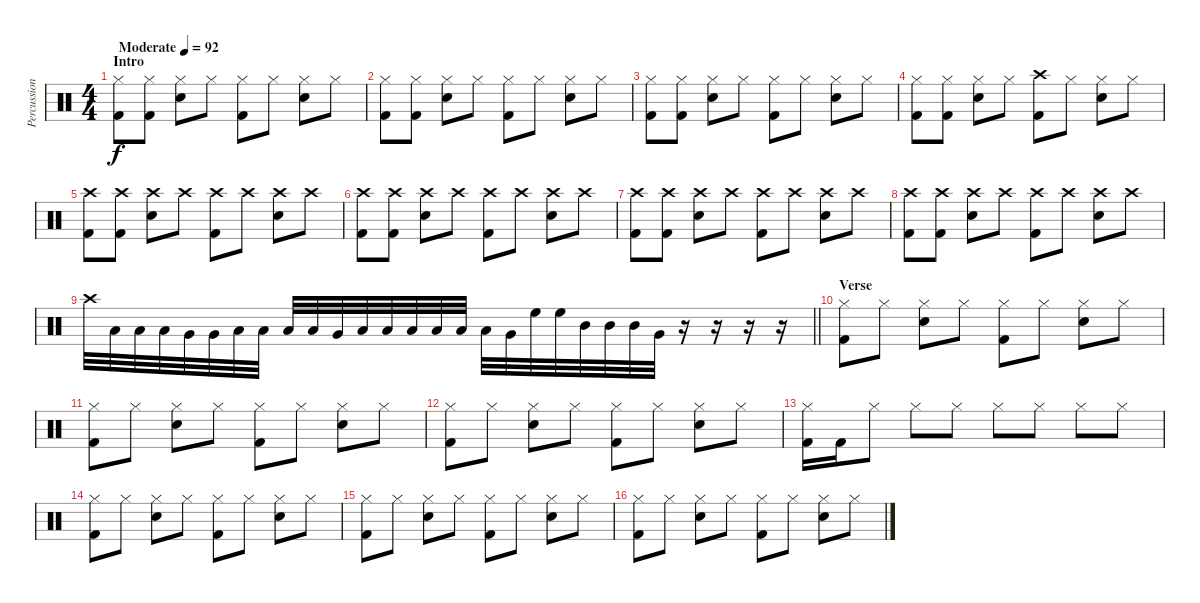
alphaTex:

\track ("Percussion" "Percussion") {instrument percussion}
\staff {score}
\articulation defaults
\ts (4 4)
\section ("" "Intro")
\tempo (92 "Moderate")
\clef neutral
\ks c
("Kick (hit) 2" "Hi-Hat (closed)").8{dy f} ("Kick (hit) 2" "Hi-Hat (closed)").8 ("Snare (hit) 2" "Hi-Hat (closed)").8 "Hi-Hat (closed)".8 ("Kick (hit) 2" "Hi-Hat (closed)").8 "Hi-Hat (closed)".8 ("Snare (hit) 2" "Hi-Hat (closed)").8 "Hi-Hat (closed)".8 |
("Kick (hit) 2" "Hi-Hat (closed)").8 ("Kick (hit) 2" "Hi-Hat (closed)").8 ("Snare (hit) 2" "Hi-Hat (closed)").8 "Hi-Hat (closed)".8 ("Kick (hit) 2" "Hi-Hat (closed)").8 "Hi-Hat (closed)".8 ("Snare (hit) 2" "Hi-Hat (closed)").8 "Hi-Hat (closed)".8 |
("Kick (hit) 2" "Hi-Hat (closed)").8 ("Kick (hit) 2" "Hi-Hat (closed)").8 ("Snare (hit) 2" "Hi-Hat (closed)").8 "Hi-Hat (closed)".8 ("Kick (hit) 2" "Hi-Hat (closed)").8 "Hi-Hat (closed)".8 ("Snare (hit) 2" "Hi-Hat (closed)").8 "Hi-Hat (closed)".8 |
("Kick (hit) 2" "Hi-Hat (closed)").8 ("Kick (hit) 2" "Hi-Hat (closed)").8 ("Snare (hit) 2" "Hi-Hat (closed)").8 "Hi-Hat (closed)".8 ("Kick (hit) 2" "Crash high (hit)").8 "Hi-Hat (closed)".8 ("Snare (hit) 2" "Hi-Hat (closed)").8 "Hi-Hat (closed)".8 |
("Kick (hit) 2" "Crash high (hit)").8 ("Kick (hit) 2" "Crash high (hit)").8 ("Snare (hit) 2" "Crash high (hit)").8 "Crash high (hit)".8 ("Kick (hit) 2" "Crash high (hit)").8 "Crash high (hit)".8 ("Snare (hit) 2" "Crash high (hit)").8 "Crash high (hit)".8 |
("Kick (hit) 2" "Crash high (hit)").8 ("Kick (hit) 2" "Crash high (hit)").8 ("Snare (hit) 2" "Crash high (hit)").8 "Crash high (hit)".8 ("Kick (hit) 2" "Crash high (hit)").8 "Crash high (hit)".8 ("Snare (hit) 2" "Crash high (hit)").8 "Crash high (hit)".8 |
("Kick (hit) 2" "Crash high (hit)").8 ("Kick (hit) 2" "Crash high (hit)").8 ("Snare (hit) 2" "Crash high (hit)").8 "Crash high (hit)".8 ("Kick (hit) 2" "Crash high (hit)").8 "Crash high (hit)".8 ("Snare (hit) 2" "Crash high (hit)").8 "Crash high (hit)".8 |
("Kick (hit) 2" "Crash high (hit)").8 ("Kick (hit) 2" "Crash high (hit)").8 ("Snare (hit) 2" "Crash high (hit)").8 "Crash high (hit)".8 ("Kick (hit) 2" "Crash high (hit)").8 "Crash high (hit)".8 ("Snare (hit) 2" "Crash high (hit)").8 "Crash high (hit)".8 |
\barLineRight lightlight "Crash high (hit)".32 "Low Floor Tom (hit)".32 "Low Floor Tom (hit)".32 "Low Floor Tom (hit)".32 "Very Low Tom (hit)".32 "Very Low Tom (hit)".32 "Low Tom (hit)".32 "Low Tom (hit)".32 "Low Floor Tom (hit)".32 "Low Floor Tom (hit)".32 "Very Low Tom (hit)".32 "Low Floor Tom (hit)".32 "Low Floor Tom (hit)".32 "Low Floor Tom (hit)".32 "Low Floor Tom (hit)".32 "Low Tom (hit)".32 "Low Tom (hit)".32 "Very Low Tom (hit)".32 "High Floor Tom (hit)".32 "High Floor Tom (hit)".32 "Mid Tom (hit)".32 "Mid Tom (hit)".32 "Mid Tom (hit)".32 "Very Low Tom (hit)".32
r.16 r.16 r.16 r.16 |
\section ("" "Verse")
("Kick (hit) 2" "Hi-Hat (closed)").8 "Hi-Hat (closed)".8 ("Electric Snare (hit)" "Hi-Hat (closed)").8 "Hi-Hat (closed)".8 ("Kick (hit) 2" "Hi-Hat (closed)").8 "Hi-Hat (closed)".8 ("Electric Snare (hit)" "Hi-Hat (closed)").8 "Hi-Hat (closed)".8 |
("Kick (hit) 2" "Hi-Hat (closed)").8 "Hi-Hat (closed)".8 ("Electric Snare (hit)" "Hi-Hat (closed)").8 "Hi-Hat (closed)".8 ("Kick (hit) 2" "Hi-Hat (closed)").8 "Hi-Hat (closed)".8 ("Electric Snare (hit)" "Hi-Hat (closed)").8 "Hi-Hat (closed)".8 |
("Kick (hit) 2" "Hi-Hat (closed)").8 "Hi-Hat (closed)".8 ("Electric Snare (hit)" "Hi-Hat (closed)").8 "Hi-Hat (closed)".8 ("Kick (hit) 2" "Hi-Hat (closed)").8 "Hi-Hat (closed)".8 ("Electric Snare (hit)" "Hi-Hat (closed)").8 "Hi-Hat (closed)".8 |
("Kick (hit) 2" "Hi-Hat (closed)").16 "Kick (hit) 2".16 "Hi-Hat (closed)".8 "Hi-Hat (closed)".8 "Hi-Hat (closed)".8 "Hi-Hat (closed)".8 "Hi-Hat (closed)".8 "Hi-Hat (closed)".8 "Hi-Hat (closed)".8 |
("Kick (hit) 2" "Hi-Hat (closed)").8 "Hi-Hat (closed)".8 ("Electric Snare (hit)" "Hi-Hat (closed)").8 "Hi-Hat (closed)".8 ("Kick (hit) 2" "Hi-Hat (closed)").8 "Hi-Hat (closed)".8 ("Electric Snare (hit)" "Hi-Hat (closed)").8 "Hi-Hat (closed)".8 |
("Kick (hit) 2" "Hi-Hat (closed)").8 "Hi-Hat (closed)".8 ("Electric Snare (hit)" "Hi-Hat (closed)").8 "Hi-Hat (closed)".8 ("Kick (hit) 2" "Hi-Hat (closed)").8 "Hi-Hat (closed)".8 ("Electric Snare (hit)" "Hi-Hat (closed)").8 "Hi-Hat (closed)".8 |
("Kick (hit) 2" "Hi-Hat (closed)").8 "Hi-Hat (closed)".8 ("Electric Snare (hit)" "Hi-Hat (closed)").8 "Hi-Hat (closed)".8 ("Kick (hit) 2" "Hi-Hat (closed)").8 "Hi-Hat (closed)".8 ("Electric Snare (hit)" "Hi-Hat (closed)").8 "Hi-Hat (closed)".8
